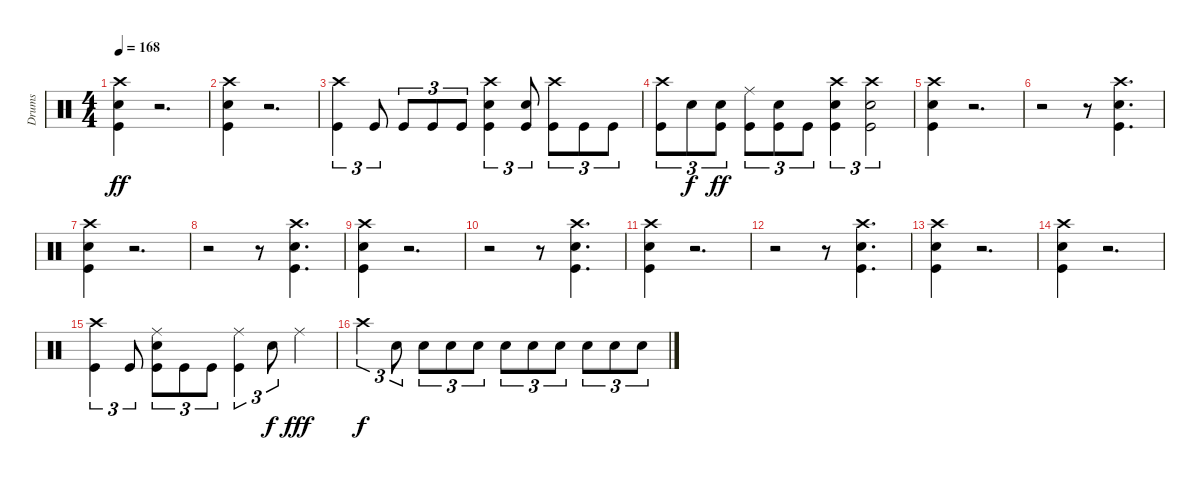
\track ("Drums" "Drums") {instrument percussion}
\staff {score}
\articulation defaults
\ts (4 4)
\tempo 168
\clef neutral
\ks c
("Crash high (hit)" "Electric Snare (hit)" "Kick (hit)").4{dy ff} r.2{d} |
("Crash high (hit)" "Electric Snare (hit)" "Kick (hit)").4 r.2{d} |
("Crash high (hit)" "Kick (hit)").4{tu (3 2)} "Kick (hit)".8{tu (3 2)} "Kick (hit)".8{tu (3 2)} "Kick (hit)".8{tu (3 2)} "Kick (hit)".8{tu (3 2)} ("Crash high (hit)" "Electric Snare (hit)" "Kick (hit)").4{tu (3 2)} ("Electric Snare (hit)" "Kick (hit)").8{tu (3 2)} ("Crash high (hit)" "Kick (hit)").8{tu (3 2)} "Kick (hit)".8{tu (3 2)} "Kick (hit)".8{tu (3 2)} |
("Crash high (hit)" "Kick (hit)").8{tu (3 2)} "Electric Snare (hit)".8{tu (3 2) dy f} ("Electric Snare (hit)" "Kick (hit)").8{tu (3 2) dy ff} ("Ride (middle)" "Kick (hit)").8{tu (3 2)} ("Electric Snare (hit)" "Kick (hit)").8{tu (3 2)} "Kick (hit)".8{tu (3 2)} ("Crash high (hit)" "Electric Snare (hit)" "Kick (hit)").4{tu (3 2)} ("Crash high (hit)" "Electric Snare (hit)" "Kick (hit)").2{tu (3 2)} |
("Crash high (hit)" "Electric Snare (hit)" "Kick (hit)").4 r.2{d} |
r.2 r.8 ("Crash high (hit)" "Electric Snare (hit)" "Kick (hit)").4{d} |
("Crash high (hit)" "Electric Snare (hit)" "Kick (hit)").4 r.2{d} |
r.2 r.8 ("Crash high (hit)" "Electric Snare (hit)" "Kick (hit)").4{d} |
("Crash high (hit)" "Electric Snare (hit)" "Kick (hit)").4 r.2{d} |
r.2 r.8 ("Crash high (hit)" "Electric Snare (hit)" "Kick (hit)").4{d} |
("Crash high (hit)" "Electric Snare (hit)" "Kick (hit)").4 r.2{d} |
r.2 r.8 ("Crash high (hit)" "Electric Snare (hit)" "Kick (hit)").4{d} |
("Crash high (hit)" "Electric Snare (hit)" "Kick (hit)").4 r.2{d} |
("Crash high (hit)" "Electric Snare (hit)" "Kick (hit)").4 r.2{d} |
("Crash high (hit)" "Kick (hit)").4{tu (3 2)} "Kick (hit)".8{tu (3 2)} ("Ride (middle)" "Electric Snare (hit)" "Kick (hit)").8{tu (3 2)} "Kick (hit)".8{tu (3 2)} "Kick (hit)".8{tu (3 2)} ("Ride (middle)" "Kick (hit)").4{tu (3 2)} "Electric Snare (hit)".8{tu (3 2) dy f} "Ride (middle)".4{dy fff} |
"Crash high (hit)".4{tu (3 2) dy f} "Electric Snare (hit)".8{tu (3 2)} "Electric Snare (hit)".8{tu (3 2)} "Electric Snare (hit)".8{tu (3 2)} "Electric Snare (hit)".8{tu (3 2)} "Electric Snare (hit)".8{tu (3 2)} "Electric Snare (hit)".8{tu (3 2)} "Electric Snare (hit)".8{tu (3 2)} "Electric Snare (hit)".8{tu (3 2)} "Electric Snare (hit)".8{tu (3 2)} "Electric Snare (hit)".8{tu (3 2)}
